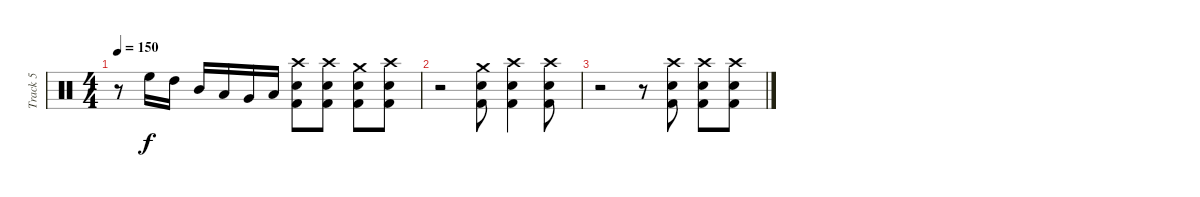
\track ("Track 5" "Track 5") {instrument percussion}
\staff {score}
\articulation defaults
\ts (4 4)
\tempo 150
\clef neutral
\ks c
r.8{dy f} "High Floor Tom (hit)".16 "High Tom (hit)".16 "Mid Tom (hit)".16 "Low Tom (hit)".16 "Very Low Tom (hit)".16 "Low Floor Tom (hit)".16 ("Crash high (hit)" "Electric Snare (hit)" "Kick (hit) 2").8 ("Crash high (hit)" "Electric Snare (hit)" "Kick (hit) 2").8 ("Crash medium (hit)" "Electric Snare (hit)" "Kick (hit) 2").8 ("Crash high (hit)" "Electric Snare (hit)" "Kick (hit) 2").8 |
r.2 ("Crash medium (hit)" "Electric Snare (hit)" "Kick (hit) 2").8 ("Crash high (hit)" "Electric Snare (hit)" "Kick (hit) 2").4 ("Crash high (hit)" "Electric Snare (hit)" "Kick (hit) 2").8 |
r.2 r.8 ("Crash high (hit)" "Electric Snare (hit)" "Kick (hit) 2").8 ("Crash high (hit)" "Electric Snare (hit)" "Kick (hit) 2").8 ("Crash high (hit)" "Electric Snare (hit)" "Kick (hit) 2").8
